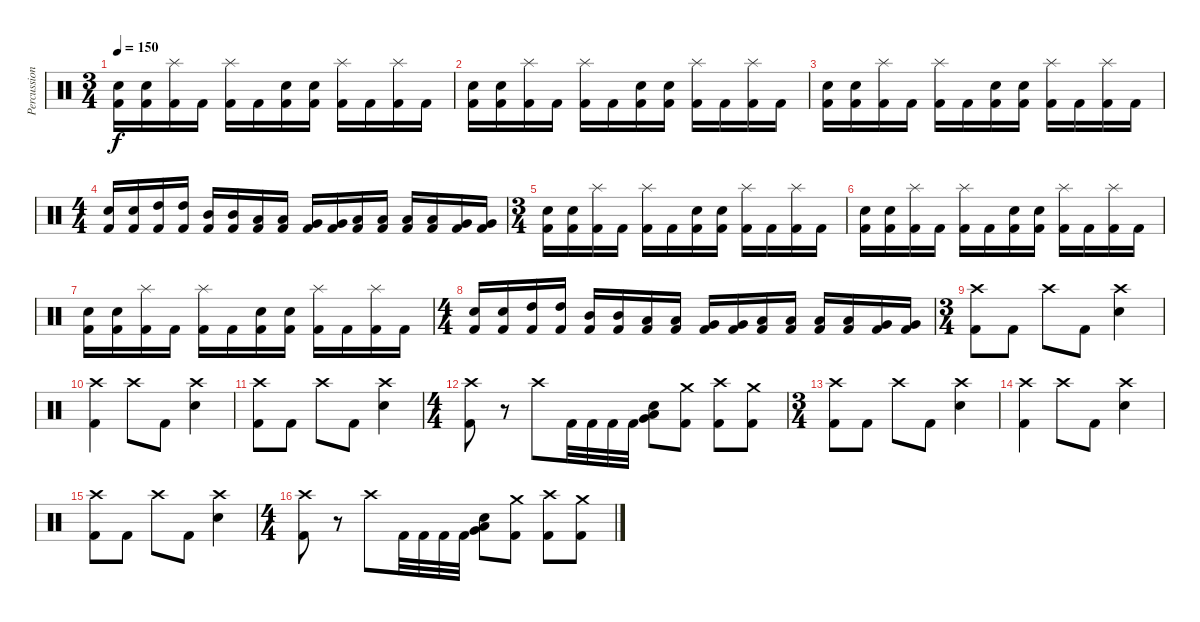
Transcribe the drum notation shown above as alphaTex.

\track ("Percussion" "Percussion") {instrument percussion}
\staff {score}
\articulation defaults
\ts (3 4)
\tempo 150
\clef neutral
\ks c
("Electric Snare (hit)" "Kick (hit) 2").16{dy f} ("Electric Snare (hit)" "Kick (hit) 2").16 ("Splash (hit)" "Kick (hit) 2").16 "Kick (hit) 2".16 ("Splash (hit)" "Kick (hit) 2").16 "Kick (hit) 2".16 ("Electric Snare (hit)" "Kick (hit) 2").16 ("Electric Snare (hit)" "Kick (hit) 2").16 ("Splash (hit)" "Kick (hit) 2").16 "Kick (hit) 2".16 ("Splash (hit)" "Kick (hit) 2").16 "Kick (hit) 2".16 |
("Electric Snare (hit)" "Kick (hit) 2").16 ("Electric Snare (hit)" "Kick (hit) 2").16 ("Splash (hit)" "Kick (hit) 2").16 "Kick (hit) 2".16 ("Splash (hit)" "Kick (hit) 2").16 "Kick (hit) 2".16 ("Electric Snare (hit)" "Kick (hit) 2").16 ("Electric Snare (hit)" "Kick (hit) 2").16 ("Splash (hit)" "Kick (hit) 2").16 "Kick (hit) 2".16 ("Splash (hit)" "Kick (hit) 2").16 "Kick (hit) 2".16 |
("Electric Snare (hit)" "Kick (hit) 2").16 ("Electric Snare (hit)" "Kick (hit) 2").16 ("Splash (hit)" "Kick (hit) 2").16 "Kick (hit) 2".16 ("Splash (hit)" "Kick (hit) 2").16 "Kick (hit) 2".16 ("Electric Snare (hit)" "Kick (hit) 2").16 ("Electric Snare (hit)" "Kick (hit) 2").16 ("Splash (hit)" "Kick (hit) 2").16 "Kick (hit) 2".16 ("Splash (hit)" "Kick (hit) 2").16 "Kick (hit) 2".16 |
\ts (4 4)
("Electric Snare (hit)" "Kick (hit) 2").16 ("Electric Snare (hit)" "Kick (hit) 2").16 ("High Tom (hit)" "Kick (hit) 2").16 ("High Tom (hit)" "Kick (hit) 2").16 ("Mid Tom (hit)" "Kick (hit) 2").16 ("Mid Tom (hit)" "Kick (hit) 2").16 ("Low Tom (hit)" "Kick (hit) 2").16 ("Low Tom (hit)" "Kick (hit) 2").16 ("Very Low Tom (hit)" "Kick (hit) 2").16 ("Very Low Tom (hit)" "Kick (hit) 2").16 ("Low Floor Tom (hit)" "Kick (hit) 2").16 ("Low Floor Tom (hit)" "Kick (hit) 2").16 ("Low Tom (hit)" "Kick (hit) 2").16 ("Low Tom (hit)" "Kick (hit) 2").16 ("Very Low Tom (hit)" "Kick (hit) 2").16 ("Very Low Tom (hit)" "Kick (hit) 2").16 |
\ts (3 4)
("Electric Snare (hit)" "Kick (hit) 2").16 ("Electric Snare (hit)" "Kick (hit) 2").16 ("Splash (hit)" "Kick (hit) 2").16 "Kick (hit) 2".16 ("Splash (hit)" "Kick (hit) 2").16 "Kick (hit) 2".16 ("Electric Snare (hit)" "Kick (hit) 2").16 ("Electric Snare (hit)" "Kick (hit) 2").16 ("Splash (hit)" "Kick (hit) 2").16 "Kick (hit) 2".16 ("Splash (hit)" "Kick (hit) 2").16 "Kick (hit) 2".16 |
("Electric Snare (hit)" "Kick (hit) 2").16 ("Electric Snare (hit)" "Kick (hit) 2").16 ("Splash (hit)" "Kick (hit) 2").16 "Kick (hit) 2".16 ("Splash (hit)" "Kick (hit) 2").16 "Kick (hit) 2".16 ("Electric Snare (hit)" "Kick (hit) 2").16 ("Electric Snare (hit)" "Kick (hit) 2").16 ("Splash (hit)" "Kick (hit) 2").16 "Kick (hit) 2".16 ("Splash (hit)" "Kick (hit) 2").16 "Kick (hit) 2".16 |
("Electric Snare (hit)" "Kick (hit) 2").16 ("Electric Snare (hit)" "Kick (hit) 2").16 ("Splash (hit)" "Kick (hit) 2").16 "Kick (hit) 2".16 ("Splash (hit)" "Kick (hit) 2").16 "Kick (hit) 2".16 ("Electric Snare (hit)" "Kick (hit) 2").16 ("Electric Snare (hit)" "Kick (hit) 2").16 ("Splash (hit)" "Kick (hit) 2").16 "Kick (hit) 2".16 ("Splash (hit)" "Kick (hit) 2").16 "Kick (hit) 2".16 |
\ts (4 4)
("Electric Snare (hit)" "Kick (hit) 2").16 ("Electric Snare (hit)" "Kick (hit) 2").16 ("High Tom (hit)" "Kick (hit) 2").16 ("High Tom (hit)" "Kick (hit) 2").16 ("Mid Tom (hit)" "Kick (hit) 2").16 ("Mid Tom (hit)" "Kick (hit) 2").16 ("Low Tom (hit)" "Kick (hit) 2").16 ("Low Tom (hit)" "Kick (hit) 2").16 ("Very Low Tom (hit)" "Kick (hit) 2").16 ("Very Low Tom (hit)" "Kick (hit) 2").16 ("Low Floor Tom (hit)" "Kick (hit) 2").16 ("Low Floor Tom (hit)" "Kick (hit) 2").16 ("Low Tom (hit)" "Kick (hit) 2").16 ("Low Tom (hit)" "Kick (hit) 2").16 ("Very Low Tom (hit)" "Kick (hit) 2").16 ("Very Low Tom (hit)" "Kick (hit) 2").16 |
\ts (3 4)
("Crash high (hit)" "Kick (hit) 2").8 "Kick (hit) 2".8 "Crash high (hit)".8 "Kick (hit) 2".8 ("Crash high (hit)" "Electric Snare (hit)").4 |
("Crash high (hit)" "Kick (hit) 2").4 "Crash high (hit)".8 "Kick (hit) 2".8 ("Crash high (hit)" "Electric Snare (hit)").4 |
("Crash high (hit)" "Kick (hit) 2").8 "Kick (hit) 2".8 "Crash high (hit)".8 "Kick (hit) 2".8 ("Crash high (hit)" "Electric Snare (hit)").4 |
\ts (4 4)
("Crash high (hit)" "Kick (hit) 2").8 r.8 "Crash high (hit)".8 "Kick (hit) 2".32 "Kick (hit) 2".32 "Kick (hit) 2".32 "Kick (hit) 2".32 ("Very Low Tom (hit)" "Low Floor Tom (hit)" "Electric Snare (hit)").8 ("Crash medium (hit)" "Kick (hit) 2").8 ("Crash high (hit)" "Kick (hit) 2").8 ("Crash medium (hit)" "Kick (hit) 2").8 |
\ts (3 4)
("Crash high (hit)" "Kick (hit) 2").8 "Kick (hit) 2".8 "Crash high (hit)".8 "Kick (hit) 2".8 ("Crash high (hit)" "Electric Snare (hit)").4 |
("Crash high (hit)" "Kick (hit) 2").4 "Crash high (hit)".8 "Kick (hit) 2".8 ("Crash high (hit)" "Electric Snare (hit)").4 |
("Crash high (hit)" "Kick (hit) 2").8 "Kick (hit) 2".8 "Crash high (hit)".8 "Kick (hit) 2".8 ("Crash high (hit)" "Electric Snare (hit)").4 |
\ts (4 4)
("Crash high (hit)" "Kick (hit) 2").8 r.8 "Crash high (hit)".8 "Kick (hit) 2".32 "Kick (hit) 2".32 "Kick (hit) 2".32 "Kick (hit) 2".32 ("Very Low Tom (hit)" "Low Floor Tom (hit)" "Electric Snare (hit)").8 ("Crash medium (hit)" "Kick (hit) 2").8 ("Crash high (hit)" "Kick (hit) 2").8 ("Crash medium (hit)" "Kick (hit) 2").8
